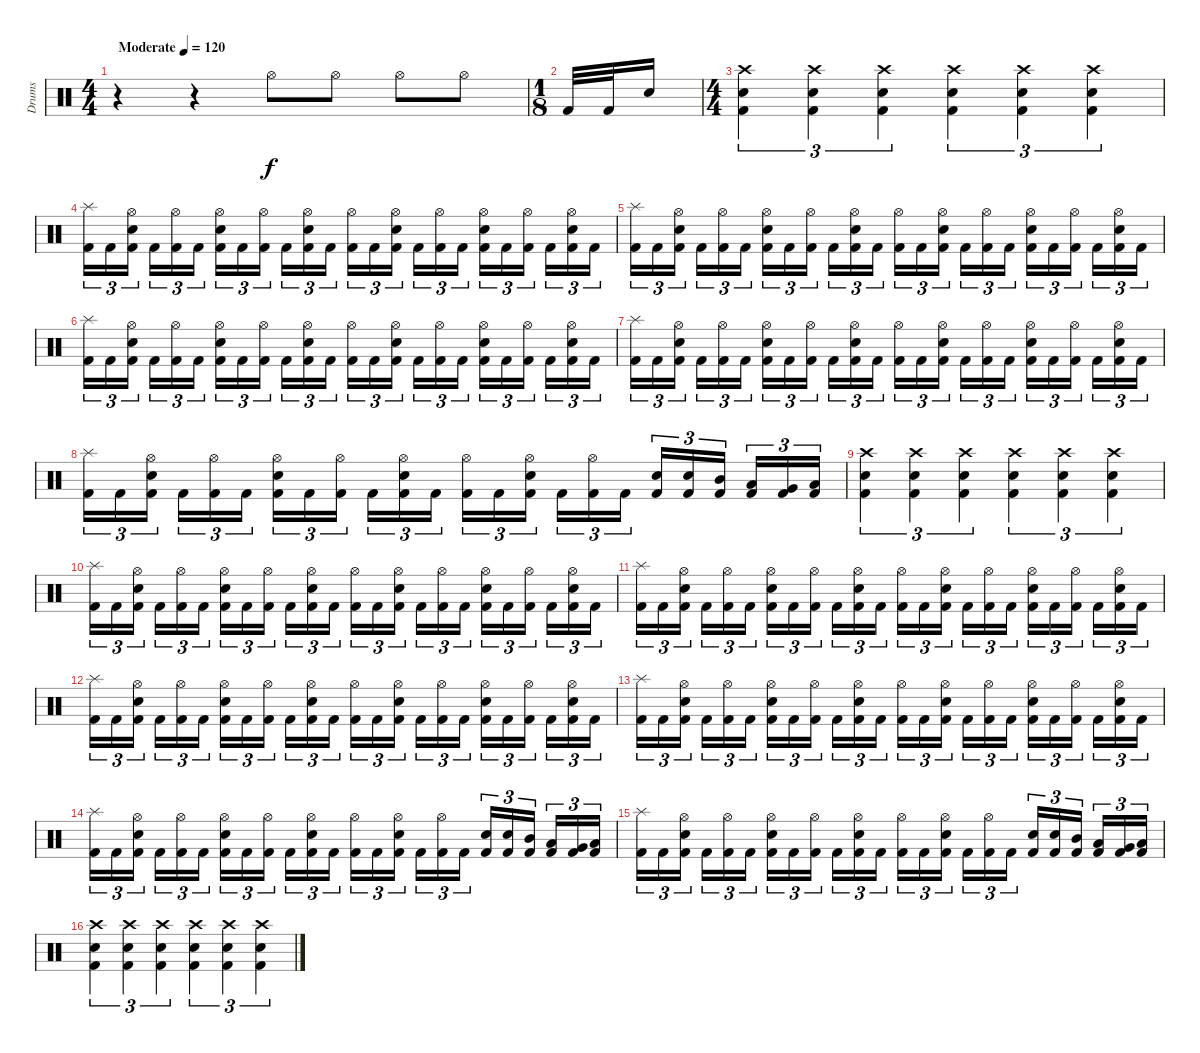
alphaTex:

\track ("Drums" "Drums") {instrument percussion}
\staff {score}
\articulation defaults
\ts (4 4)
\tempo (120 "Moderate")
\clef neutral
\ks c
r.4{dy f} r.4 "Hi-Hat (open)".8 "Hi-Hat (open)".8 "Hi-Hat (open)".8 "Hi-Hat (open)".8 |
\ts (1 8)
"Kick (hit) 2".32 "Kick (hit) 2".32 "Snare (hit) 2".16 |
\ts (4 4)
("Crash high (hit)" "Snare (hit) 2" "Kick (hit) 2").4{tu (3 2)} ("Crash high (hit)" "Snare (hit) 2" "Kick (hit) 2").4{tu (3 2)} ("Crash high (hit)" "Snare (hit) 2" "Kick (hit) 2").4{tu (3 2)} ("Crash high (hit)" "Snare (hit) 2" "Kick (hit) 2").4{tu (3 2)} ("Crash high (hit)" "Snare (hit) 2" "Kick (hit) 2").4{tu (3 2)} ("Crash high (hit)" "Snare (hit) 2" "Kick (hit) 2").4{tu (3 2)} |
("Splash (hit)" "Kick (hit) 2").16{tu (3 2)} "Kick (hit) 2".16{tu (3 2)} ("Hi-Hat (open)" "Snare (hit) 2" "Kick (hit) 2").16{tu (3 2) beam splitsecondary} "Kick (hit) 2".16{tu (3 2)} ("Hi-Hat (open)" "Kick (hit) 2").16{tu (3 2)} "Kick (hit) 2".16{tu (3 2)} ("Hi-Hat (open)" "Snare (hit) 2" "Kick (hit) 2").16{tu (3 2)} "Kick (hit) 2".16{tu (3 2)} ("Hi-Hat (open)" "Kick (hit) 2").16{tu (3 2) beam splitsecondary} "Kick (hit) 2".16{tu (3 2)} ("Hi-Hat (open)" "Snare (hit) 2" "Kick (hit) 2").16{tu (3 2)} "Kick (hit) 2".16{tu (3 2)} ("Hi-Hat (open)" "Kick (hit) 2").16{tu (3 2)} "Kick (hit) 2".16{tu (3 2)} ("Hi-Hat (open)" "Snare (hit) 2" "Kick (hit) 2").16{tu (3 2) beam splitsecondary} "Kick (hit) 2".16{tu (3 2)} ("Hi-Hat (open)" "Kick (hit) 2").16{tu (3 2)} "Kick (hit) 2".16{tu (3 2)} ("Hi-Hat (open)" "Snare (hit) 2" "Kick (hit) 2").16{tu (3 2)} "Kick (hit) 2".16{tu (3 2)} ("Hi-Hat (open)" "Kick (hit) 2").16{tu (3 2) beam splitsecondary} "Kick (hit) 2".16{tu (3 2)} ("Hi-Hat (open)" "Snare (hit) 2" "Kick (hit) 2").16{tu (3 2)} "Kick (hit) 2".16{tu (3 2)} |
("Splash (hit)" "Kick (hit) 2").16{tu (3 2)} "Kick (hit) 2".16{tu (3 2)} ("Hi-Hat (open)" "Snare (hit) 2" "Kick (hit) 2").16{tu (3 2) beam splitsecondary} "Kick (hit) 2".16{tu (3 2)} ("Hi-Hat (open)" "Kick (hit) 2").16{tu (3 2)} "Kick (hit) 2".16{tu (3 2)} ("Hi-Hat (open)" "Snare (hit) 2" "Kick (hit) 2").16{tu (3 2)} "Kick (hit) 2".16{tu (3 2)} ("Hi-Hat (open)" "Kick (hit) 2").16{tu (3 2) beam splitsecondary} "Kick (hit) 2".16{tu (3 2)} ("Hi-Hat (open)" "Snare (hit) 2" "Kick (hit) 2").16{tu (3 2)} "Kick (hit) 2".16{tu (3 2)} ("Hi-Hat (open)" "Kick (hit) 2").16{tu (3 2)} "Kick (hit) 2".16{tu (3 2)} ("Hi-Hat (open)" "Snare (hit) 2" "Kick (hit) 2").16{tu (3 2) beam splitsecondary} "Kick (hit) 2".16{tu (3 2)} ("Hi-Hat (open)" "Kick (hit) 2").16{tu (3 2)} "Kick (hit) 2".16{tu (3 2)} ("Hi-Hat (open)" "Snare (hit) 2" "Kick (hit) 2").16{tu (3 2)} "Kick (hit) 2".16{tu (3 2)} ("Hi-Hat (open)" "Kick (hit) 2").16{tu (3 2) beam splitsecondary} "Kick (hit) 2".16{tu (3 2)} ("Hi-Hat (open)" "Snare (hit) 2" "Kick (hit) 2").16{tu (3 2)} "Kick (hit) 2".16{tu (3 2)} |
("Splash (hit)" "Kick (hit) 2").16{tu (3 2)} "Kick (hit) 2".16{tu (3 2)} ("Hi-Hat (open)" "Snare (hit) 2" "Kick (hit) 2").16{tu (3 2) beam splitsecondary} "Kick (hit) 2".16{tu (3 2)} ("Hi-Hat (open)" "Kick (hit) 2").16{tu (3 2)} "Kick (hit) 2".16{tu (3 2)} ("Hi-Hat (open)" "Snare (hit) 2" "Kick (hit) 2").16{tu (3 2)} "Kick (hit) 2".16{tu (3 2)} ("Hi-Hat (open)" "Kick (hit) 2").16{tu (3 2) beam splitsecondary} "Kick (hit) 2".16{tu (3 2)} ("Hi-Hat (open)" "Snare (hit) 2" "Kick (hit) 2").16{tu (3 2)} "Kick (hit) 2".16{tu (3 2)} ("Hi-Hat (open)" "Kick (hit) 2").16{tu (3 2)} "Kick (hit) 2".16{tu (3 2)} ("Hi-Hat (open)" "Snare (hit) 2" "Kick (hit) 2").16{tu (3 2) beam splitsecondary} "Kick (hit) 2".16{tu (3 2)} ("Hi-Hat (open)" "Kick (hit) 2").16{tu (3 2)} "Kick (hit) 2".16{tu (3 2)} ("Hi-Hat (open)" "Snare (hit) 2" "Kick (hit) 2").16{tu (3 2)} "Kick (hit) 2".16{tu (3 2)} ("Hi-Hat (open)" "Kick (hit) 2").16{tu (3 2) beam splitsecondary} "Kick (hit) 2".16{tu (3 2)} ("Hi-Hat (open)" "Snare (hit) 2" "Kick (hit) 2").16{tu (3 2)} "Kick (hit) 2".16{tu (3 2)} |
("Splash (hit)" "Kick (hit) 2").16{tu (3 2)} "Kick (hit) 2".16{tu (3 2)} ("Hi-Hat (open)" "Snare (hit) 2" "Kick (hit) 2").16{tu (3 2) beam splitsecondary} "Kick (hit) 2".16{tu (3 2)} ("Hi-Hat (open)" "Kick (hit) 2").16{tu (3 2)} "Kick (hit) 2".16{tu (3 2)} ("Hi-Hat (open)" "Snare (hit) 2" "Kick (hit) 2").16{tu (3 2)} "Kick (hit) 2".16{tu (3 2)} ("Hi-Hat (open)" "Kick (hit) 2").16{tu (3 2) beam splitsecondary} "Kick (hit) 2".16{tu (3 2)} ("Hi-Hat (open)" "Snare (hit) 2" "Kick (hit) 2").16{tu (3 2)} "Kick (hit) 2".16{tu (3 2)} ("Hi-Hat (open)" "Kick (hit) 2").16{tu (3 2)} "Kick (hit) 2".16{tu (3 2)} ("Hi-Hat (open)" "Snare (hit) 2" "Kick (hit) 2").16{tu (3 2) beam splitsecondary} "Kick (hit) 2".16{tu (3 2)} ("Hi-Hat (open)" "Kick (hit) 2").16{tu (3 2)} "Kick (hit) 2".16{tu (3 2)} ("Hi-Hat (open)" "Snare (hit) 2" "Kick (hit) 2").16{tu (3 2)} "Kick (hit) 2".16{tu (3 2)} ("Hi-Hat (open)" "Kick (hit) 2").16{tu (3 2) beam splitsecondary} "Kick (hit) 2".16{tu (3 2)} ("Hi-Hat (open)" "Snare (hit) 2" "Kick (hit) 2").16{tu (3 2)} "Kick (hit) 2".16{tu (3 2)} |
("Splash (hit)" "Kick (hit) 2").16{tu (3 2)} "Kick (hit) 2".16{tu (3 2)} ("Hi-Hat (open)" "Snare (hit) 2" "Kick (hit) 2").16{tu (3 2) beam splitsecondary} "Kick (hit) 2".16{tu (3 2)} ("Hi-Hat (open)" "Kick (hit) 2").16{tu (3 2)} "Kick (hit) 2".16{tu (3 2)} ("Hi-Hat (open)" "Snare (hit) 2" "Kick (hit) 2").16{tu (3 2)} "Kick (hit) 2".16{tu (3 2)} ("Hi-Hat (open)" "Kick (hit) 2").16{tu (3 2) beam splitsecondary} "Kick (hit) 2".16{tu (3 2)} ("Hi-Hat (open)" "Snare (hit) 2" "Kick (hit) 2").16{tu (3 2)} "Kick (hit) 2".16{tu (3 2)} ("Hi-Hat (open)" "Kick (hit) 2").16{tu (3 2)} "Kick (hit) 2".16{tu (3 2)} ("Hi-Hat (open)" "Snare (hit) 2" "Kick (hit) 2").16{tu (3 2) beam splitsecondary} "Kick (hit) 2".16{tu (3 2)} ("Hi-Hat (open)" "Kick (hit) 2").16{tu (3 2)} "Kick (hit) 2".16{tu (3 2)} ("Snare (hit) 2" "Kick (hit) 2").16{tu (3 2)} ("Snare (hit) 2" "Kick (hit) 2").16{tu (3 2)} ("Mid Tom (hit)" "Kick (hit) 2").16{tu (3 2) beam splitsecondary} ("Low Tom (hit)" "Kick (hit) 2").16{tu (3 2)} ("Very Low Tom (hit)" "Kick (hit) 2").16{tu (3 2)} ("Low Floor Tom (hit)" "Kick (hit) 2").16{tu (3 2)} |
("Crash high (hit)" "Snare (hit) 2" "Kick (hit) 2").4{tu (3 2)} ("Crash high (hit)" "Snare (hit) 2" "Kick (hit) 2").4{tu (3 2)} ("Crash high (hit)" "Snare (hit) 2" "Kick (hit) 2").4{tu (3 2)} ("Crash high (hit)" "Snare (hit) 2" "Kick (hit) 2").4{tu (3 2)} ("Crash high (hit)" "Snare (hit) 2" "Kick (hit) 2").4{tu (3 2)} ("Crash high (hit)" "Snare (hit) 2" "Kick (hit) 2").4{tu (3 2)} |
("Splash (hit)" "Kick (hit) 2").16{tu (3 2)} "Kick (hit) 2".16{tu (3 2)} ("Hi-Hat (open)" "Snare (hit) 2" "Kick (hit) 2").16{tu (3 2) beam splitsecondary} "Kick (hit) 2".16{tu (3 2)} ("Hi-Hat (open)" "Kick (hit) 2").16{tu (3 2)} "Kick (hit) 2".16{tu (3 2)} ("Hi-Hat (open)" "Snare (hit) 2" "Kick (hit) 2").16{tu (3 2)} "Kick (hit) 2".16{tu (3 2)} ("Hi-Hat (open)" "Kick (hit) 2").16{tu (3 2) beam splitsecondary} "Kick (hit) 2".16{tu (3 2)} ("Hi-Hat (open)" "Snare (hit) 2" "Kick (hit) 2").16{tu (3 2)} "Kick (hit) 2".16{tu (3 2)} ("Hi-Hat (open)" "Kick (hit) 2").16{tu (3 2)} "Kick (hit) 2".16{tu (3 2)} ("Hi-Hat (open)" "Snare (hit) 2" "Kick (hit) 2").16{tu (3 2) beam splitsecondary} "Kick (hit) 2".16{tu (3 2)} ("Hi-Hat (open)" "Kick (hit) 2").16{tu (3 2)} "Kick (hit) 2".16{tu (3 2)} ("Hi-Hat (open)" "Snare (hit) 2" "Kick (hit) 2").16{tu (3 2)} "Kick (hit) 2".16{tu (3 2)} ("Hi-Hat (open)" "Kick (hit) 2").16{tu (3 2) beam splitsecondary} "Kick (hit) 2".16{tu (3 2)} ("Hi-Hat (open)" "Snare (hit) 2" "Kick (hit) 2").16{tu (3 2)} "Kick (hit) 2".16{tu (3 2)} |
("Splash (hit)" "Kick (hit) 2").16{tu (3 2)} "Kick (hit) 2".16{tu (3 2)} ("Hi-Hat (open)" "Snare (hit) 2" "Kick (hit) 2").16{tu (3 2) beam splitsecondary} "Kick (hit) 2".16{tu (3 2)} ("Hi-Hat (open)" "Kick (hit) 2").16{tu (3 2)} "Kick (hit) 2".16{tu (3 2)} ("Hi-Hat (open)" "Snare (hit) 2" "Kick (hit) 2").16{tu (3 2)} "Kick (hit) 2".16{tu (3 2)} ("Hi-Hat (open)" "Kick (hit) 2").16{tu (3 2) beam splitsecondary} "Kick (hit) 2".16{tu (3 2)} ("Hi-Hat (open)" "Snare (hit) 2" "Kick (hit) 2").16{tu (3 2)} "Kick (hit) 2".16{tu (3 2)} ("Hi-Hat (open)" "Kick (hit) 2").16{tu (3 2)} "Kick (hit) 2".16{tu (3 2)} ("Hi-Hat (open)" "Snare (hit) 2" "Kick (hit) 2").16{tu (3 2) beam splitsecondary} "Kick (hit) 2".16{tu (3 2)} ("Hi-Hat (open)" "Kick (hit) 2").16{tu (3 2)} "Kick (hit) 2".16{tu (3 2)} ("Hi-Hat (open)" "Snare (hit) 2" "Kick (hit) 2").16{tu (3 2)} "Kick (hit) 2".16{tu (3 2)} ("Hi-Hat (open)" "Kick (hit) 2").16{tu (3 2) beam splitsecondary} "Kick (hit) 2".16{tu (3 2)} ("Hi-Hat (open)" "Snare (hit) 2" "Kick (hit) 2").16{tu (3 2)} "Kick (hit) 2".16{tu (3 2)} |
("Splash (hit)" "Kick (hit) 2").16{tu (3 2)} "Kick (hit) 2".16{tu (3 2)} ("Hi-Hat (open)" "Snare (hit) 2" "Kick (hit) 2").16{tu (3 2) beam splitsecondary} "Kick (hit) 2".16{tu (3 2)} ("Hi-Hat (open)" "Kick (hit) 2").16{tu (3 2)} "Kick (hit) 2".16{tu (3 2)} ("Hi-Hat (open)" "Snare (hit) 2" "Kick (hit) 2").16{tu (3 2)} "Kick (hit) 2".16{tu (3 2)} ("Hi-Hat (open)" "Kick (hit) 2").16{tu (3 2) beam splitsecondary} "Kick (hit) 2".16{tu (3 2)} ("Hi-Hat (open)" "Snare (hit) 2" "Kick (hit) 2").16{tu (3 2)} "Kick (hit) 2".16{tu (3 2)} ("Hi-Hat (open)" "Kick (hit) 2").16{tu (3 2)} "Kick (hit) 2".16{tu (3 2)} ("Hi-Hat (open)" "Snare (hit) 2" "Kick (hit) 2").16{tu (3 2) beam splitsecondary} "Kick (hit) 2".16{tu (3 2)} ("Hi-Hat (open)" "Kick (hit) 2").16{tu (3 2)} "Kick (hit) 2".16{tu (3 2)} ("Hi-Hat (open)" "Snare (hit) 2" "Kick (hit) 2").16{tu (3 2)} "Kick (hit) 2".16{tu (3 2)} ("Hi-Hat (open)" "Kick (hit) 2").16{tu (3 2) beam splitsecondary} "Kick (hit) 2".16{tu (3 2)} ("Hi-Hat (open)" "Snare (hit) 2" "Kick (hit) 2").16{tu (3 2)} "Kick (hit) 2".16{tu (3 2)} |
("Splash (hit)" "Kick (hit) 2").16{tu (3 2)} "Kick (hit) 2".16{tu (3 2)} ("Hi-Hat (open)" "Snare (hit) 2" "Kick (hit) 2").16{tu (3 2) beam splitsecondary} "Kick (hit) 2".16{tu (3 2)} ("Hi-Hat (open)" "Kick (hit) 2").16{tu (3 2)} "Kick (hit) 2".16{tu (3 2)} ("Hi-Hat (open)" "Snare (hit) 2" "Kick (hit) 2").16{tu (3 2)} "Kick (hit) 2".16{tu (3 2)} ("Hi-Hat (open)" "Kick (hit) 2").16{tu (3 2) beam splitsecondary} "Kick (hit) 2".16{tu (3 2)} ("Hi-Hat (open)" "Snare (hit) 2" "Kick (hit) 2").16{tu (3 2)} "Kick (hit) 2".16{tu (3 2)} ("Hi-Hat (open)" "Kick (hit) 2").16{tu (3 2)} "Kick (hit) 2".16{tu (3 2)} ("Hi-Hat (open)" "Snare (hit) 2" "Kick (hit) 2").16{tu (3 2) beam splitsecondary} "Kick (hit) 2".16{tu (3 2)} ("Hi-Hat (open)" "Kick (hit) 2").16{tu (3 2)} "Kick (hit) 2".16{tu (3 2)} ("Hi-Hat (open)" "Snare (hit) 2" "Kick (hit) 2").16{tu (3 2)} "Kick (hit) 2".16{tu (3 2)} ("Hi-Hat (open)" "Kick (hit) 2").16{tu (3 2) beam splitsecondary} "Kick (hit) 2".16{tu (3 2)} ("Hi-Hat (open)" "Snare (hit) 2" "Kick (hit) 2").16{tu (3 2)} "Kick (hit) 2".16{tu (3 2)} |
("Splash (hit)" "Kick (hit) 2").16{tu (3 2)} "Kick (hit) 2".16{tu (3 2)} ("Hi-Hat (open)" "Snare (hit) 2" "Kick (hit) 2").16{tu (3 2) beam splitsecondary} "Kick (hit) 2".16{tu (3 2)} ("Hi-Hat (open)" "Kick (hit) 2").16{tu (3 2)} "Kick (hit) 2".16{tu (3 2)} ("Hi-Hat (open)" "Snare (hit) 2" "Kick (hit) 2").16{tu (3 2)} "Kick (hit) 2".16{tu (3 2)} ("Hi-Hat (open)" "Kick (hit) 2").16{tu (3 2) beam splitsecondary} "Kick (hit) 2".16{tu (3 2)} ("Hi-Hat (open)" "Snare (hit) 2" "Kick (hit) 2").16{tu (3 2)} "Kick (hit) 2".16{tu (3 2)} ("Hi-Hat (open)" "Kick (hit) 2").16{tu (3 2)} "Kick (hit) 2".16{tu (3 2)} ("Hi-Hat (open)" "Snare (hit) 2" "Kick (hit) 2").16{tu (3 2) beam splitsecondary} "Kick (hit) 2".16{tu (3 2)} ("Hi-Hat (open)" "Kick (hit) 2").16{tu (3 2)} "Kick (hit) 2".16{tu (3 2)} ("Snare (hit) 2" "Kick (hit) 2").16{tu (3 2)} ("Snare (hit) 2" "Kick (hit) 2").16{tu (3 2)} ("Mid Tom (hit)" "Kick (hit) 2").16{tu (3 2) beam splitsecondary} ("Low Tom (hit)" "Kick (hit) 2").16{tu (3 2)} ("Very Low Tom (hit)" "Kick (hit) 2").16{tu (3 2)} ("Low Floor Tom (hit)" "Kick (hit) 2").16{tu (3 2)} |
("Splash (hit)" "Kick (hit) 2").16{tu (3 2)} "Kick (hit) 2".16{tu (3 2)} ("Hi-Hat (open)" "Snare (hit) 2" "Kick (hit) 2").16{tu (3 2) beam splitsecondary} "Kick (hit) 2".16{tu (3 2)} ("Hi-Hat (open)" "Kick (hit) 2").16{tu (3 2)} "Kick (hit) 2".16{tu (3 2)} ("Hi-Hat (open)" "Snare (hit) 2" "Kick (hit) 2").16{tu (3 2)} "Kick (hit) 2".16{tu (3 2)} ("Hi-Hat (open)" "Kick (hit) 2").16{tu (3 2) beam splitsecondary} "Kick (hit) 2".16{tu (3 2)} ("Hi-Hat (open)" "Snare (hit) 2" "Kick (hit) 2").16{tu (3 2)} "Kick (hit) 2".16{tu (3 2)} ("Hi-Hat (open)" "Kick (hit) 2").16{tu (3 2)} "Kick (hit) 2".16{tu (3 2)} ("Hi-Hat (open)" "Snare (hit) 2" "Kick (hit) 2").16{tu (3 2) beam splitsecondary} "Kick (hit) 2".16{tu (3 2)} ("Hi-Hat (open)" "Kick (hit) 2").16{tu (3 2)} "Kick (hit) 2".16{tu (3 2)} ("Snare (hit) 2" "Kick (hit) 2").16{tu (3 2)} ("Snare (hit) 2" "Kick (hit) 2").16{tu (3 2)} ("Mid Tom (hit)" "Kick (hit) 2").16{tu (3 2) beam splitsecondary} ("Low Tom (hit)" "Kick (hit) 2").16{tu (3 2)} ("Very Low Tom (hit)" "Kick (hit) 2").16{tu (3 2)} ("Low Floor Tom (hit)" "Kick (hit) 2").16{tu (3 2)} |
("Crash high (hit)" "Snare (hit) 2" "Kick (hit) 2").4{tu (3 2)} ("Crash high (hit)" "Snare (hit) 2" "Kick (hit) 2").4{tu (3 2)} ("Crash high (hit)" "Snare (hit) 2" "Kick (hit) 2").4{tu (3 2)} ("Crash high (hit)" "Snare (hit) 2" "Kick (hit) 2").4{tu (3 2)} ("Crash high (hit)" "Snare (hit) 2" "Kick (hit) 2").4{tu (3 2)} ("Crash high (hit)" "Snare (hit) 2" "Kick (hit) 2").4{tu (3 2)}
